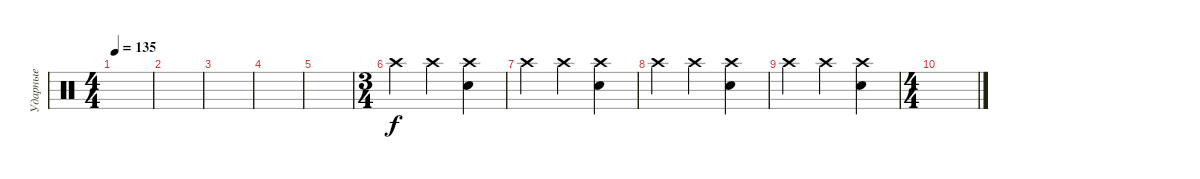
\track ("Ударные" "Ударные") {instrument percussion}
\staff {score}
\articulation defaults
\ts (4 4)
\tempo 135
\clef neutral
\ks c
|
|
|
|
|
\ts (3 4)
"Crash high (hit)".4 "Crash high (hit)".4 ("Crash high (hit)" "Electric Snare (hit)").4 |
"Crash high (hit)".4 "Crash high (hit)".4 ("Crash high (hit)" "Electric Snare (hit)").4 |
"Crash high (hit)".4 "Crash high (hit)".4 ("Crash high (hit)" "Electric Snare (hit)").4 |
"Crash high (hit)".4 "Crash high (hit)".4 ("Crash high (hit)" "Electric Snare (hit)").4 |
\ts (4 4)
